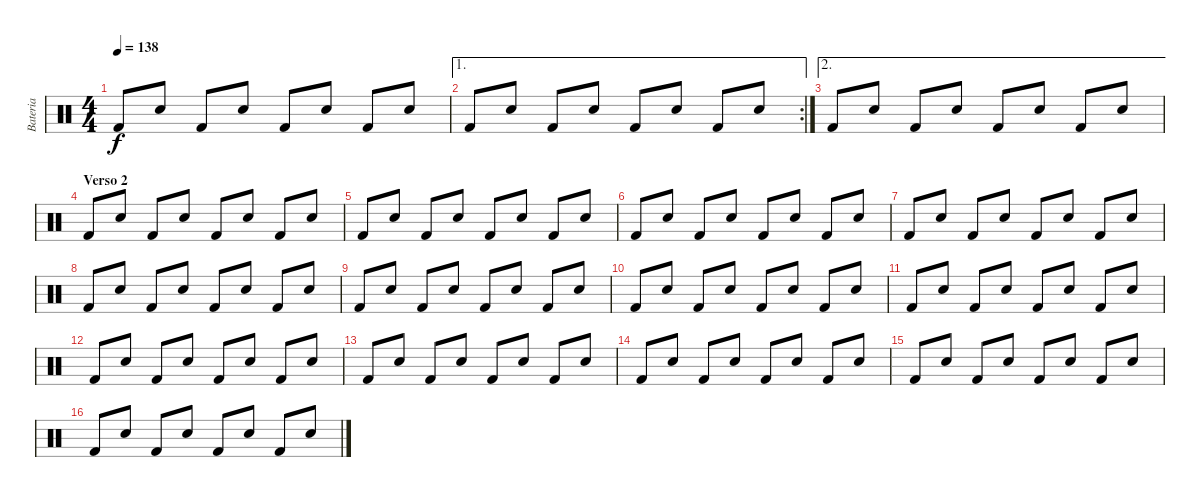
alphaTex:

\track ("Bateria" "Bateria") {instrument percussion}
\staff {score}
\articulation defaults
\ts (4 4)
\tempo 138
\clef neutral
\ks c "Kick (hit) 2".8{dy f} "Snare (hit) 2".8 "Kick (hit) 2".8 "Snare (hit) 2".8 "Kick (hit) 2".8 "Snare (hit) 2".8 "Kick (hit) 2".8 "Snare (hit) 2".8
|
\ae 1
\rc 2 "Kick (hit) 2".8 "Snare (hit) 2".8 "Kick (hit) 2".8 "Snare (hit) 2".8 "Kick (hit) 2".8 "Snare (hit) 2".8 "Kick (hit) 2".8 "Snare (hit) 2".8
|
\ae 2 "Kick (hit) 2".8 "Snare (hit) 2".8 "Kick (hit) 2".8 "Snare (hit) 2".8 "Kick (hit) 2".8 "Snare (hit) 2".8 "Kick (hit) 2".8 "Snare (hit) 2".8
|
\section ("" "Verso 2")
"Kick (hit) 2".8 "Snare (hit) 2".8 "Kick (hit) 2".8 "Snare (hit) 2".8 "Kick (hit) 2".8 "Snare (hit) 2".8 "Kick (hit) 2".8 "Snare (hit) 2".8 |
"Kick (hit) 2".8 "Snare (hit) 2".8 "Kick (hit) 2".8 "Snare (hit) 2".8 "Kick (hit) 2".8 "Snare (hit) 2".8 "Kick (hit) 2".8 "Snare (hit) 2".8 |
"Kick (hit) 2".8 "Snare (hit) 2".8 "Kick (hit) 2".8 "Snare (hit) 2".8 "Kick (hit) 2".8 "Snare (hit) 2".8 "Kick (hit) 2".8 "Snare (hit) 2".8 |
"Kick (hit) 2".8 "Snare (hit) 2".8 "Kick (hit) 2".8 "Snare (hit) 2".8 "Kick (hit) 2".8 "Snare (hit) 2".8 "Kick (hit) 2".8 "Snare (hit) 2".8 |
"Kick (hit) 2".8 "Snare (hit) 2".8 "Kick (hit) 2".8 "Snare (hit) 2".8 "Kick (hit) 2".8 "Snare (hit) 2".8 "Kick (hit) 2".8 "Snare (hit) 2".8 |
"Kick (hit) 2".8 "Snare (hit) 2".8 "Kick (hit) 2".8 "Snare (hit) 2".8 "Kick (hit) 2".8 "Snare (hit) 2".8 "Kick (hit) 2".8 "Snare (hit) 2".8 |
"Kick (hit) 2".8 "Snare (hit) 2".8 "Kick (hit) 2".8 "Snare (hit) 2".8 "Kick (hit) 2".8 "Snare (hit) 2".8 "Kick (hit) 2".8 "Snare (hit) 2".8 |
"Kick (hit) 2".8 "Snare (hit) 2".8 "Kick (hit) 2".8 "Snare (hit) 2".8 "Kick (hit) 2".8 "Snare (hit) 2".8 "Kick (hit) 2".8 "Snare (hit) 2".8 |
"Kick (hit) 2".8 "Snare (hit) 2".8 "Kick (hit) 2".8 "Snare (hit) 2".8 "Kick (hit) 2".8 "Snare (hit) 2".8 "Kick (hit) 2".8 "Snare (hit) 2".8 |
"Kick (hit) 2".8 "Snare (hit) 2".8 "Kick (hit) 2".8 "Snare (hit) 2".8 "Kick (hit) 2".8 "Snare (hit) 2".8 "Kick (hit) 2".8 "Snare (hit) 2".8 |
"Kick (hit) 2".8 "Snare (hit) 2".8 "Kick (hit) 2".8 "Snare (hit) 2".8 "Kick (hit) 2".8 "Snare (hit) 2".8 "Kick (hit) 2".8 "Snare (hit) 2".8 |
"Kick (hit) 2".8 "Snare (hit) 2".8 "Kick (hit) 2".8 "Snare (hit) 2".8 "Kick (hit) 2".8 "Snare (hit) 2".8 "Kick (hit) 2".8 "Snare (hit) 2".8 |
"Kick (hit) 2".8 "Snare (hit) 2".8 "Kick (hit) 2".8 "Snare (hit) 2".8 "Kick (hit) 2".8 "Snare (hit) 2".8 "Kick (hit) 2".8 "Snare (hit) 2".8
